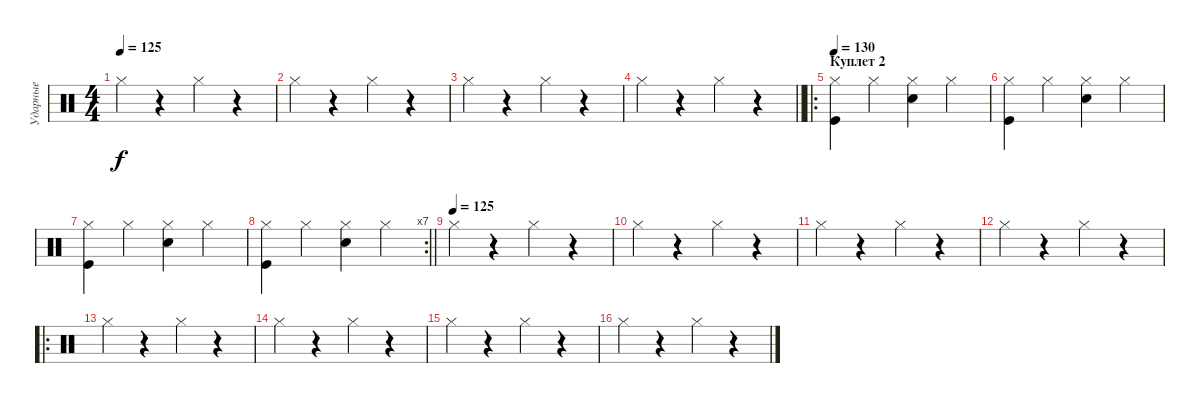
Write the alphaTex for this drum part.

\track ("Ударные" "Ударные") {instrument percussion}
\staff {score}
\articulation defaults
\ts (4 4)
\tempo 125
\clef neutral
\ks c "Hi-Hat (closed)".4{dy f}
r.4 "Hi-Hat (closed)".4 r.4 |
"Hi-Hat (closed)".4 r.4 "Hi-Hat (closed)".4 r.4 |
"Hi-Hat (closed)".4 r.4 "Hi-Hat (closed)".4 r.4 |
\barLineRight lightlight "Hi-Hat (closed)".4
r.4 "Hi-Hat (closed)".4 r.4 |
\ro
\section ("" "Куплет 2")
\tempo 130
("Hi-Hat (closed)" "Kick (hit)").4 "Hi-Hat (closed)".4 ("Hi-Hat (closed)" "Snare (hit) 2").4 "Hi-Hat (closed)".4 |
("Hi-Hat (closed)" "Kick (hit)").4 "Hi-Hat (closed)".4 ("Hi-Hat (closed)" "Snare (hit) 2").4 "Hi-Hat (closed)".4 |
("Hi-Hat (closed)" "Kick (hit)").4 "Hi-Hat (closed)".4 ("Hi-Hat (closed)" "Snare (hit) 2").4 "Hi-Hat (closed)".4 |
\rc 7
\barLineRight lightlight
("Hi-Hat (closed)" "Kick (hit)").4 "Hi-Hat (closed)".4 ("Hi-Hat (closed)" "Snare (hit) 2").4 "Hi-Hat (closed)".4 |
\tempo (125)
"Hi-Hat (closed)".4 r.4 "Hi-Hat (closed)".4 r.4 |
"Hi-Hat (closed)".4 r.4 "Hi-Hat (closed)".4 r.4 |
"Hi-Hat (closed)".4 r.4 "Hi-Hat (closed)".4 r.4 |
"Hi-Hat (closed)".4 r.4 "Hi-Hat (closed)".4 r.4 |
\ro "Hi-Hat (closed)".4
r.4 "Hi-Hat (closed)".4 r.4 |
"Hi-Hat (closed)".4 r.4 "Hi-Hat (closed)".4 r.4 |
"Hi-Hat (closed)".4 r.4 "Hi-Hat (closed)".4 r.4 |
"Hi-Hat (closed)".4 r.4 "Hi-Hat (closed)".4 r.4
